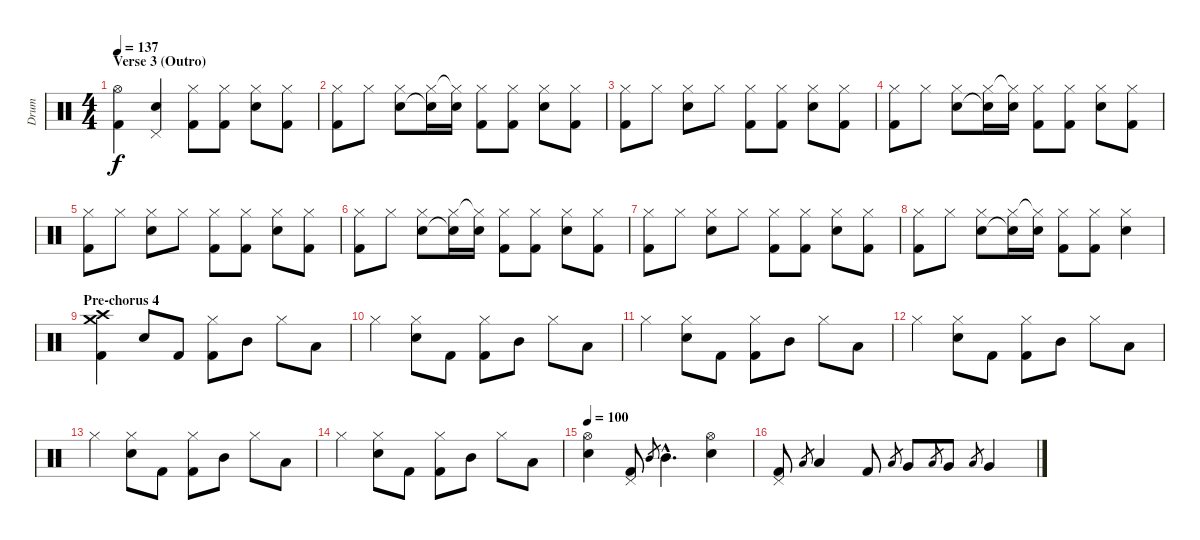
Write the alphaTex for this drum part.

\track ("Drum" "Drum") {instrument percussion}
\staff {score}
\articulation defaults
\ts (4 4)
\section ("" "Verse 3 (Outro)")
\tempo 137
\clef neutral
\ks c
("Hi-Hat (open)" "Kick (hit) 2").4{dy f} ("Pedal Hi-Hat (hit)" "Electric Snare (hit)").4 ("Hi-Hat (closed)" "Kick (hit) 2").8 ("Hi-Hat (closed)" "Kick (hit) 2").8 ("Hi-Hat (closed)" "Electric Snare (hit)").8 ("Hi-Hat (closed)" "Kick (hit) 2").8 |
("Hi-Hat (closed)" "Kick (hit) 2").8 "Hi-Hat (closed)".8 ("Hi-Hat (closed)" "Electric Snare (hit)").8 ("Hi-Hat (closed)" "Electric Snare (hit)"{t}).16 ("Hi-Hat (closed)"{t} "Electric Snare (hit)").16 ("Hi-Hat (closed)" "Kick (hit) 2").8 ("Hi-Hat (closed)" "Kick (hit) 2").8 ("Hi-Hat (closed)" "Electric Snare (hit)").8 ("Hi-Hat (closed)" "Kick (hit) 2").8 |
("Hi-Hat (closed)" "Kick (hit) 2").8 "Hi-Hat (closed)".8 ("Hi-Hat (closed)" "Electric Snare (hit)").8 "Hi-Hat (closed)".8 ("Hi-Hat (closed)" "Kick (hit) 2").8 ("Hi-Hat (closed)" "Kick (hit) 2").8 ("Hi-Hat (closed)" "Electric Snare (hit)").8 ("Hi-Hat (closed)" "Kick (hit) 2").8 |
("Hi-Hat (closed)" "Kick (hit) 2").8 "Hi-Hat (closed)".8 ("Hi-Hat (closed)" "Electric Snare (hit)").8 ("Hi-Hat (closed)" "Electric Snare (hit)"{t}).16 ("Hi-Hat (closed)"{t} "Electric Snare (hit)").16 ("Hi-Hat (closed)" "Kick (hit) 2").8 ("Hi-Hat (closed)" "Kick (hit) 2").8 ("Hi-Hat (closed)" "Electric Snare (hit)").8 ("Hi-Hat (closed)" "Kick (hit) 2").8 |
("Hi-Hat (closed)" "Kick (hit) 2").8 "Hi-Hat (closed)".8 ("Hi-Hat (closed)" "Electric Snare (hit)").8 "Hi-Hat (closed)".8 ("Hi-Hat (closed)" "Kick (hit) 2").8 ("Hi-Hat (closed)" "Kick (hit) 2").8 ("Hi-Hat (closed)" "Electric Snare (hit)").8 ("Hi-Hat (closed)" "Kick (hit) 2").8 |
("Hi-Hat (closed)" "Kick (hit) 2").8 "Hi-Hat (closed)".8 ("Hi-Hat (closed)" "Electric Snare (hit)").8 ("Hi-Hat (closed)" "Electric Snare (hit)"{t}).16 ("Hi-Hat (closed)"{t} "Electric Snare (hit)").16 ("Hi-Hat (closed)" "Kick (hit) 2").8 ("Hi-Hat (closed)" "Kick (hit) 2").8 ("Hi-Hat (closed)" "Electric Snare (hit)").8 ("Hi-Hat (closed)" "Kick (hit) 2").8 |
("Hi-Hat (closed)" "Kick (hit) 2").8 "Hi-Hat (closed)".8 ("Hi-Hat (closed)" "Electric Snare (hit)").8 "Hi-Hat (closed)".8 ("Hi-Hat (closed)" "Kick (hit) 2").8 ("Hi-Hat (closed)" "Kick (hit) 2").8 ("Hi-Hat (closed)" "Electric Snare (hit)").8 ("Hi-Hat (closed)" "Kick (hit) 2").8 |
("Hi-Hat (closed)" "Kick (hit) 2").8 "Hi-Hat (closed)".8 ("Hi-Hat (closed)" "Electric Snare (hit)").8 ("Hi-Hat (closed)" "Electric Snare (hit)"{t}).16 ("Hi-Hat (closed)"{t} "Electric Snare (hit)").16 ("Hi-Hat (closed)" "Kick (hit) 2").8 ("Hi-Hat (closed)" "Kick (hit) 2").8 ("Hi-Hat (closed)" "Electric Snare (hit)").4 |
\section ("" "Pre-chorus 4")
("Kick (hit) 2" "Crash high (hit)" "Crash medium (hit)").4 "Electric Snare (hit)".8 "Kick (hit) 2".8 ("Hi-Hat (closed)" "Kick (hit) 2").8 "Mid Tom (hit)".8 "Hi-Hat (closed)".8 "Low Tom (hit)".8 |
"Hi-Hat (closed)".4 ("Hi-Hat (closed)" "Electric Snare (hit)").8 "Kick (hit) 2".8 ("Hi-Hat (closed)" "Kick (hit) 2").8 "Mid Tom (hit)".8 "Hi-Hat (closed)".8 "Low Tom (hit)".8 |
"Hi-Hat (closed)".4 ("Hi-Hat (closed)" "Electric Snare (hit)").8 "Kick (hit) 2".8 ("Hi-Hat (closed)" "Kick (hit) 2").8 "Mid Tom (hit)".8 "Hi-Hat (closed)".8 "Low Tom (hit)".8 |
"Hi-Hat (closed)".4 ("Hi-Hat (closed)" "Electric Snare (hit)").8 "Kick (hit) 2".8 ("Hi-Hat (closed)" "Kick (hit) 2").8 "Mid Tom (hit)".8 "Hi-Hat (closed)".8 "Low Tom (hit)".8 |
"Hi-Hat (closed)".4 ("Hi-Hat (closed)" "Electric Snare (hit)").8 "Kick (hit) 2".8 ("Hi-Hat (closed)" "Kick (hit) 2").8 "Mid Tom (hit)".8 "Hi-Hat (closed)".8 "Low Tom (hit)".8 |
"Hi-Hat (closed)".4 ("Hi-Hat (closed)" "Electric Snare (hit)").8 "Kick (hit) 2".8 ("Hi-Hat (closed)" "Kick (hit) 2").8 "Mid Tom (hit)".8 "Hi-Hat (closed)".8 "Low Tom (hit)".8 |
\tempo 100
("Hi-Hat (open)" "Electric Snare (hit)").4 ("Pedal Hi-Hat (hit)" "Kick (hit) 2").8 "Mid Tom (hit)".8{gr} "Mid Tom (hit)"{hac}.4{d} ("Hi-Hat (open)" "Electric Snare (hit)").4 |
("Pedal Hi-Hat (hit)" "Kick (hit) 2").8 "Low Tom (hit)".8{gr} "Low Tom (hit)".4 "Kick (hit) 2".8 "Low Floor Tom (hit)".8{gr} "Very Low Tom (hit)".8 "Low Floor Tom (hit)".8{gr} "Very Low Tom (hit)".8 "Low Floor Tom (hit)".8{gr} "Very Low Tom (hit)".4
